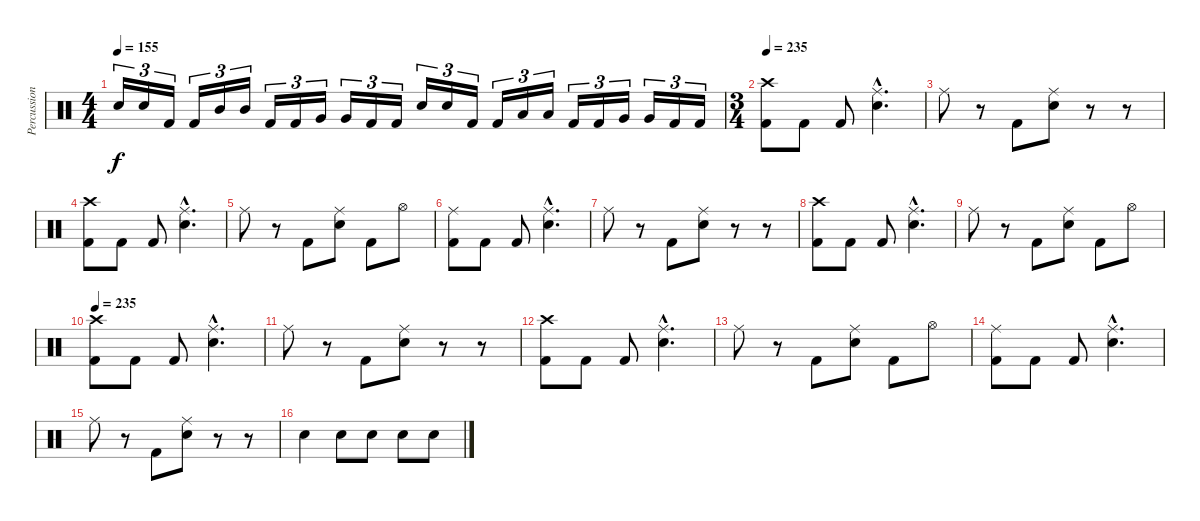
\track ("Percussion" "Percussion") {instrument percussion}
\staff {score}
\articulation defaults
\ts (4 4)
\tempo 155
\clef neutral
\ks c "Electric Snare (hit)".16{tu (3 2) dy f} "Electric Snare (hit)".16{tu (3 2)} "Kick (hit) 2".16{tu (3 2)} "Kick (hit) 2".16{tu (3 2)} "Mid Tom (hit)".16{tu (3 2)} "Mid Tom (hit)".16{tu (3 2)} "Kick (hit) 2".16{tu (3 2)} "Kick (hit) 2".16{tu (3 2)} "Very Low Tom (hit)".16{tu (3 2)} "Very Low Tom (hit)".16{tu (3 2)} "Kick (hit) 2".16{tu (3 2)} "Kick (hit) 2".16{tu (3 2)} "Electric Snare (hit)".16{tu (3 2)} "Electric Snare (hit)".16{tu (3 2)} "Kick (hit) 2".16{tu (3 2)} "Kick (hit) 2".16{tu (3 2)} "Low Tom (hit)".16{tu (3 2)} "Low Tom (hit)".16{tu (3 2)} "Kick (hit) 2".16{tu (3 2)} "Kick (hit) 2".16{tu (3 2)} "Very Low Tom (hit)".16{tu (3 2)} "Very Low Tom (hit)".16{tu (3 2)} "Kick (hit) 2".16{tu (3 2)} "Kick (hit) 2".16{tu (3 2)}
|
\ts (3 4)
\tempo 235
("Crash high (hit)" "Kick (hit) 2").8 "Kick (hit) 2".8 "Kick (hit) 2".8 ("Ride (middle)"{hac} "Electric Snare (hit)"{hac}).4{d} |
"Ride (middle)".8 r.8 "Kick (hit) 2".8 ("Ride (middle)" "Electric Snare (hit)").8 r.8 r.8 |
("Crash high (hit)" "Kick (hit) 2").8 "Kick (hit) 2".8 "Kick (hit) 2".8 ("Ride (middle)"{hac} "Electric Snare (hit)"{hac}).4{d} |
"Ride (middle)".8 r.8 "Kick (hit) 2".8 ("Ride (middle)" "Electric Snare (hit)").8 "Kick (hit) 2".8 "Hi-Hat (open)".8 |
("Ride (middle)" "Kick (hit) 2").8 "Kick (hit) 2".8 "Kick (hit) 2".8 ("Ride (middle)"{hac} "Electric Snare (hit)"{hac}).4{d} |
"Ride (middle)".8 r.8 "Kick (hit) 2".8 ("Ride (middle)" "Electric Snare (hit)").8 r.8 r.8 |
("Crash high (hit)" "Kick (hit) 2").8 "Kick (hit) 2".8 "Kick (hit) 2".8 ("Ride (middle)"{hac} "Electric Snare (hit)"{hac}).4{d} |
"Ride (middle)".8 r.8 "Kick (hit) 2".8 ("Ride (middle)" "Electric Snare (hit)").8 "Kick (hit) 2".8 "Hi-Hat (open)".8 |
\tempo 235
("Crash high (hit)" "Kick (hit) 2").8 "Kick (hit) 2".8 "Kick (hit) 2".8 ("Ride (middle)"{hac} "Electric Snare (hit)"{hac}).4{d} |
"Ride (middle)".8 r.8 "Kick (hit) 2".8 ("Ride (middle)" "Electric Snare (hit)").8 r.8 r.8 |
("Crash high (hit)" "Kick (hit) 2").8 "Kick (hit) 2".8 "Kick (hit) 2".8 ("Ride (middle)"{hac} "Electric Snare (hit)"{hac}).4{d} |
"Ride (middle)".8 r.8 "Kick (hit) 2".8 ("Ride (middle)" "Electric Snare (hit)").8 "Kick (hit) 2".8 "Hi-Hat (open)".8 |
("Ride (middle)" "Kick (hit) 2").8 "Kick (hit) 2".8 "Kick (hit) 2".8 ("Ride (middle)"{hac} "Electric Snare (hit)"{hac}).4{d} |
"Ride (middle)".8 r.8 "Kick (hit) 2".8 ("Ride (middle)" "Electric Snare (hit)").8 r.8 r.8 |
"Electric Snare (hit)".4 "Electric Snare (hit)".8 "Electric Snare (hit)".8 "Electric Snare (hit)".8 "Electric Snare (hit)".8
